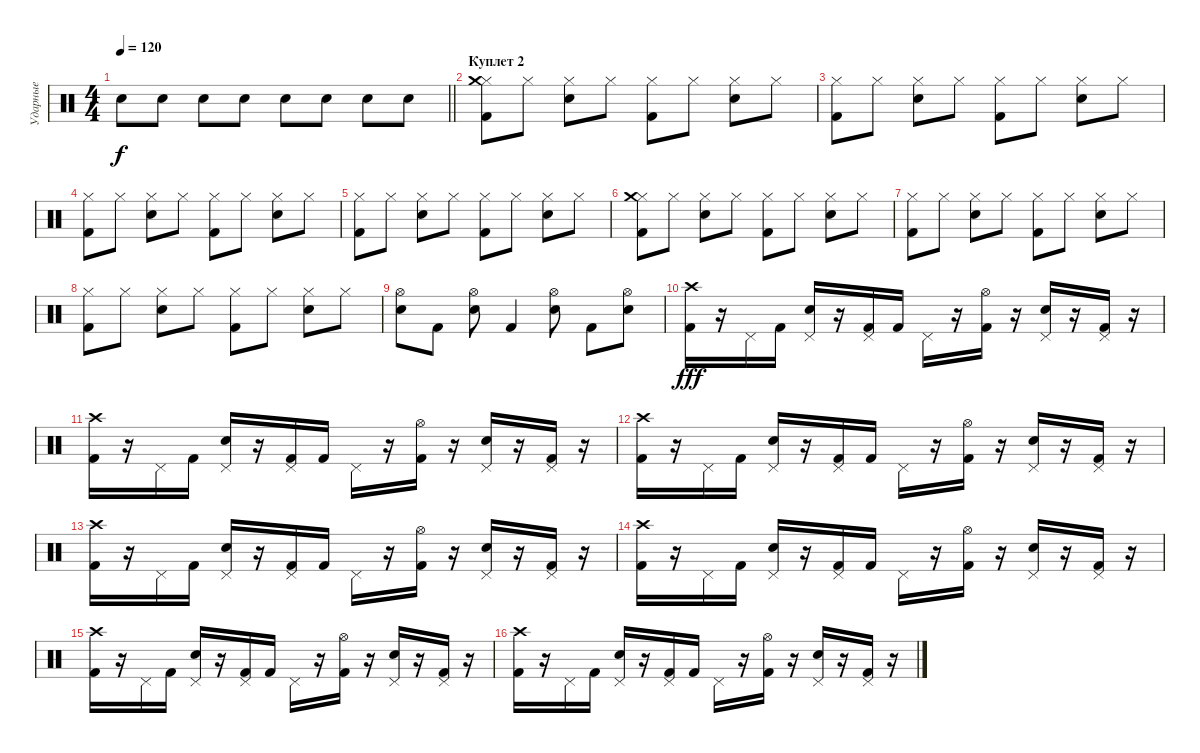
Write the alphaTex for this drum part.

\track ("Ударные" "Ударные") {instrument percussion}
\staff {score}
\articulation defaults
\ts (4 4)
\tempo 120
\clef neutral
\barLineRight lightlight
\ks c "Snare (hit) 2".8{dy f} "Snare (hit) 2".8 "Snare (hit) 2".8 "Snare (hit) 2".8 "Snare (hit) 2".8 "Snare (hit) 2".8 "Snare (hit) 2".8 "Snare (hit) 2".8
|
\section ("" "Куплет 2")
("Hi-Hat (closed)" "Kick (hit) 2" "Crash medium (hit)").8 "Hi-Hat (closed)".8 ("Hi-Hat (closed)" "Electric Snare (hit)").8 "Hi-Hat (closed)".8 ("Hi-Hat (closed)" "Kick (hit) 2").8 "Hi-Hat (closed)".8 ("Hi-Hat (closed)" "Electric Snare (hit)").8 "Hi-Hat (closed)".8 |
("Hi-Hat (closed)" "Kick (hit) 2").8 "Hi-Hat (closed)".8 ("Hi-Hat (closed)" "Electric Snare (hit)").8 "Hi-Hat (closed)".8 ("Hi-Hat (closed)" "Kick (hit) 2").8 "Hi-Hat (closed)".8 ("Hi-Hat (closed)" "Electric Snare (hit)").8 "Hi-Hat (closed)".8 |
("Hi-Hat (closed)" "Kick (hit) 2").8 "Hi-Hat (closed)".8 ("Hi-Hat (closed)" "Electric Snare (hit)").8 "Hi-Hat (closed)".8 ("Hi-Hat (closed)" "Kick (hit) 2").8 "Hi-Hat (closed)".8 ("Hi-Hat (closed)" "Electric Snare (hit)").8 "Hi-Hat (closed)".8 |
("Hi-Hat (closed)" "Kick (hit) 2").8 "Hi-Hat (closed)".8 ("Hi-Hat (closed)" "Electric Snare (hit)").8 "Hi-Hat (closed)".8 ("Hi-Hat (closed)" "Kick (hit) 2").8 "Hi-Hat (closed)".8 ("Hi-Hat (closed)" "Electric Snare (hit)").8 "Hi-Hat (closed)".8 |
("Hi-Hat (closed)" "Kick (hit) 2" "Crash medium (hit)").8 "Hi-Hat (closed)".8 ("Hi-Hat (closed)" "Electric Snare (hit)").8 "Hi-Hat (closed)".8 ("Hi-Hat (closed)" "Kick (hit) 2").8 "Hi-Hat (closed)".8 ("Hi-Hat (closed)" "Electric Snare (hit)").8 "Hi-Hat (closed)".8 |
("Hi-Hat (closed)" "Kick (hit) 2").8 "Hi-Hat (closed)".8 ("Hi-Hat (closed)" "Electric Snare (hit)").8 "Hi-Hat (closed)".8 ("Hi-Hat (closed)" "Kick (hit) 2").8 "Hi-Hat (closed)".8 ("Hi-Hat (closed)" "Electric Snare (hit)").8 "Hi-Hat (closed)".8 |
("Hi-Hat (closed)" "Kick (hit) 2").8 "Hi-Hat (closed)".8 ("Hi-Hat (closed)" "Electric Snare (hit)").8 "Hi-Hat (closed)".8 ("Hi-Hat (closed)" "Kick (hit) 2").8 "Hi-Hat (closed)".8 ("Hi-Hat (closed)" "Electric Snare (hit)").8 "Hi-Hat (closed)".8 |
("Electric Snare (hit)" "Hi-Hat (open)").8 "Kick (hit) 2".8 ("Electric Snare (hit)" "Hi-Hat (open)").8 "Kick (hit) 2".4 ("Electric Snare (hit)" "Hi-Hat (open)").8 "Kick (hit) 2".8 ("Electric Snare (hit)" "Hi-Hat (open)").8 |
("Crash high (hit)" "Kick (hit) 2").16{dy fff} r.16 "Pedal Hi-Hat (hit)".16 "Kick (hit) 2".16 ("Pedal Hi-Hat (hit)" "Snare (hit) 2").16 r.16 ("Pedal Hi-Hat (hit)" "Kick (hit) 2").16 "Kick (hit) 2".16 "Pedal Hi-Hat (hit)".16 r.16 ("Hi-Hat (open)" "Kick (hit) 2").16 r.16 ("Pedal Hi-Hat (hit)" "Snare (hit) 2").16 r.16 ("Pedal Hi-Hat (hit)" "Kick (hit) 2").16 r.16 |
("Crash high (hit)" "Kick (hit) 2").16 r.16 "Pedal Hi-Hat (hit)".16 "Kick (hit) 2".16 ("Pedal Hi-Hat (hit)" "Snare (hit) 2").16 r.16 ("Pedal Hi-Hat (hit)" "Kick (hit) 2").16 "Kick (hit) 2".16 "Pedal Hi-Hat (hit)".16 r.16 ("Hi-Hat (open)" "Kick (hit) 2").16 r.16 ("Pedal Hi-Hat (hit)" "Snare (hit) 2").16 r.16 ("Pedal Hi-Hat (hit)" "Kick (hit) 2").16 r.16 |
("Crash high (hit)" "Kick (hit) 2").16 r.16 "Pedal Hi-Hat (hit)".16 "Kick (hit) 2".16 ("Pedal Hi-Hat (hit)" "Snare (hit) 2").16 r.16 ("Pedal Hi-Hat (hit)" "Kick (hit) 2").16 "Kick (hit) 2".16 "Pedal Hi-Hat (hit)".16 r.16 ("Hi-Hat (open)" "Kick (hit) 2").16 r.16 ("Pedal Hi-Hat (hit)" "Snare (hit) 2").16 r.16 ("Pedal Hi-Hat (hit)" "Kick (hit) 2").16 r.16 |
("Crash high (hit)" "Kick (hit) 2").16 r.16 "Pedal Hi-Hat (hit)".16 "Kick (hit) 2".16 ("Pedal Hi-Hat (hit)" "Snare (hit) 2").16 r.16 ("Pedal Hi-Hat (hit)" "Kick (hit) 2").16 "Kick (hit) 2".16 "Pedal Hi-Hat (hit)".16 r.16 ("Hi-Hat (open)" "Kick (hit) 2").16 r.16 ("Pedal Hi-Hat (hit)" "Snare (hit) 2").16 r.16 ("Pedal Hi-Hat (hit)" "Kick (hit) 2").16 r.16 |
("Crash high (hit)" "Kick (hit) 2").16 r.16 "Pedal Hi-Hat (hit)".16 "Kick (hit) 2".16 ("Pedal Hi-Hat (hit)" "Snare (hit) 2").16 r.16 ("Pedal Hi-Hat (hit)" "Kick (hit) 2").16 "Kick (hit) 2".16 "Pedal Hi-Hat (hit)".16 r.16 ("Hi-Hat (open)" "Kick (hit) 2").16 r.16 ("Pedal Hi-Hat (hit)" "Snare (hit) 2").16 r.16 ("Pedal Hi-Hat (hit)" "Kick (hit) 2").16 r.16 |
("Crash high (hit)" "Kick (hit) 2").16 r.16 "Pedal Hi-Hat (hit)".16 "Kick (hit) 2".16 ("Pedal Hi-Hat (hit)" "Snare (hit) 2").16 r.16 ("Pedal Hi-Hat (hit)" "Kick (hit) 2").16 "Kick (hit) 2".16 "Pedal Hi-Hat (hit)".16 r.16 ("Hi-Hat (open)" "Kick (hit) 2").16 r.16 ("Pedal Hi-Hat (hit)" "Snare (hit) 2").16 r.16 ("Pedal Hi-Hat (hit)" "Kick (hit) 2").16 r.16 |
("Crash high (hit)" "Kick (hit) 2").16 r.16 "Pedal Hi-Hat (hit)".16 "Kick (hit) 2".16 ("Pedal Hi-Hat (hit)" "Snare (hit) 2").16 r.16 ("Pedal Hi-Hat (hit)" "Kick (hit) 2").16 "Kick (hit) 2".16 "Pedal Hi-Hat (hit)".16 r.16 ("Hi-Hat (open)" "Kick (hit) 2").16 r.16 ("Pedal Hi-Hat (hit)" "Snare (hit) 2").16 r.16 ("Pedal Hi-Hat (hit)" "Kick (hit) 2").16 r.16
